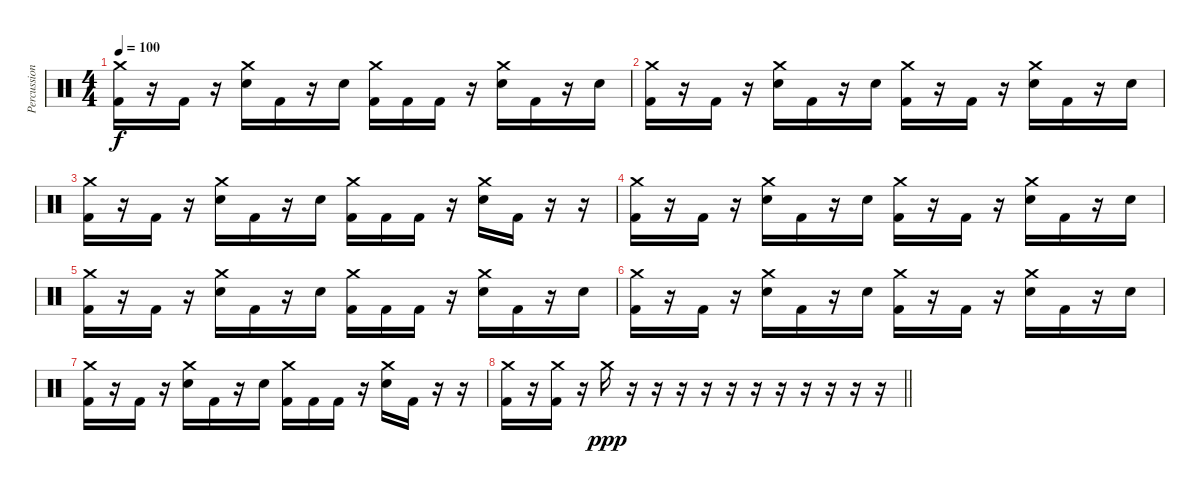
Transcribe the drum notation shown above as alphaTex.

\track ("Percussion" "Percussion") {instrument percussion}
\staff {score}
\articulation defaults
\ts (4 4)
\tempo 100
\clef neutral
\ks c
("Crash medium (hit)" "Kick (hit) 2").16{dy f} r.16 "Kick (hit) 2".16 r.16 ("Crash medium (hit)" "Electric Snare (hit)").16 "Kick (hit) 2".16 r.16 "Electric Snare (hit)".16 ("Crash medium (hit)" "Kick (hit) 2").16 "Kick (hit) 2".16 "Kick (hit) 2".16 r.16 ("Crash medium (hit)" "Electric Snare (hit)").16 "Kick (hit) 2".16 r.16 "Electric Snare (hit)".16 |
("Crash medium (hit)" "Kick (hit) 2").16 r.16 "Kick (hit) 2".16 r.16 ("Crash medium (hit)" "Electric Snare (hit)").16 "Kick (hit) 2".16 r.16 "Electric Snare (hit)".16 ("Crash medium (hit)" "Kick (hit) 2").16 r.16 "Kick (hit) 2".16 r.16 ("Crash medium (hit)" "Electric Snare (hit)").16 "Kick (hit) 2".16 r.16 "Electric Snare (hit)".16 |
("Crash medium (hit)" "Kick (hit) 2").16 r.16 "Kick (hit) 2".16 r.16 ("Crash medium (hit)" "Electric Snare (hit)").16 "Kick (hit) 2".16 r.16 "Electric Snare (hit)".16 ("Crash medium (hit)" "Kick (hit) 2").16 "Kick (hit) 2".16 "Kick (hit) 2".16 r.16 ("Crash medium (hit)" "Electric Snare (hit)").16 "Kick (hit) 2".16 r.16 r.16 |
("Crash medium (hit)" "Kick (hit) 2").16 r.16 "Kick (hit) 2".16 r.16 ("Crash medium (hit)" "Electric Snare (hit)").16 "Kick (hit) 2".16 r.16 "Electric Snare (hit)".16 ("Crash medium (hit)" "Kick (hit) 2").16 r.16 "Kick (hit) 2".16 r.16 ("Crash medium (hit)" "Electric Snare (hit)").16 "Kick (hit) 2".16 r.16 "Electric Snare (hit)".16 |
("Crash medium (hit)" "Kick (hit) 2").16 r.16 "Kick (hit) 2".16 r.16 ("Crash medium (hit)" "Electric Snare (hit)").16 "Kick (hit) 2".16 r.16 "Electric Snare (hit)".16 ("Crash medium (hit)" "Kick (hit) 2").16 "Kick (hit) 2".16 "Kick (hit) 2".16 r.16 ("Crash medium (hit)" "Electric Snare (hit)").16 "Kick (hit) 2".16 r.16 "Electric Snare (hit)".16 |
("Crash medium (hit)" "Kick (hit) 2").16 r.16 "Kick (hit) 2".16 r.16 ("Crash medium (hit)" "Electric Snare (hit)").16 "Kick (hit) 2".16 r.16 "Electric Snare (hit)".16 ("Crash medium (hit)" "Kick (hit) 2").16 r.16 "Kick (hit) 2".16 r.16 ("Crash medium (hit)" "Electric Snare (hit)").16 "Kick (hit) 2".16 r.16 "Electric Snare (hit)".16 |
("Crash medium (hit)" "Kick (hit) 2").16 r.16 "Kick (hit) 2".16 r.16 ("Crash medium (hit)" "Electric Snare (hit)").16 "Kick (hit) 2".16 r.16 "Electric Snare (hit)".16 ("Crash medium (hit)" "Kick (hit) 2").16 "Kick (hit) 2".16 "Kick (hit) 2".16 r.16 ("Crash medium (hit)" "Electric Snare (hit)").16 "Kick (hit) 2".16 r.16 r.16 |
\barLineRight lightlight
("Crash medium (hit)" "Kick (hit) 2").16 r.16 ("Crash medium (hit)" "Kick (hit) 2").16 r.16 "Crash medium (hit)".16{dy ppp} r.16 r.16 r.16 r.16 r.16 r.16 r.16 r.16 r.16 r.16 r.16
